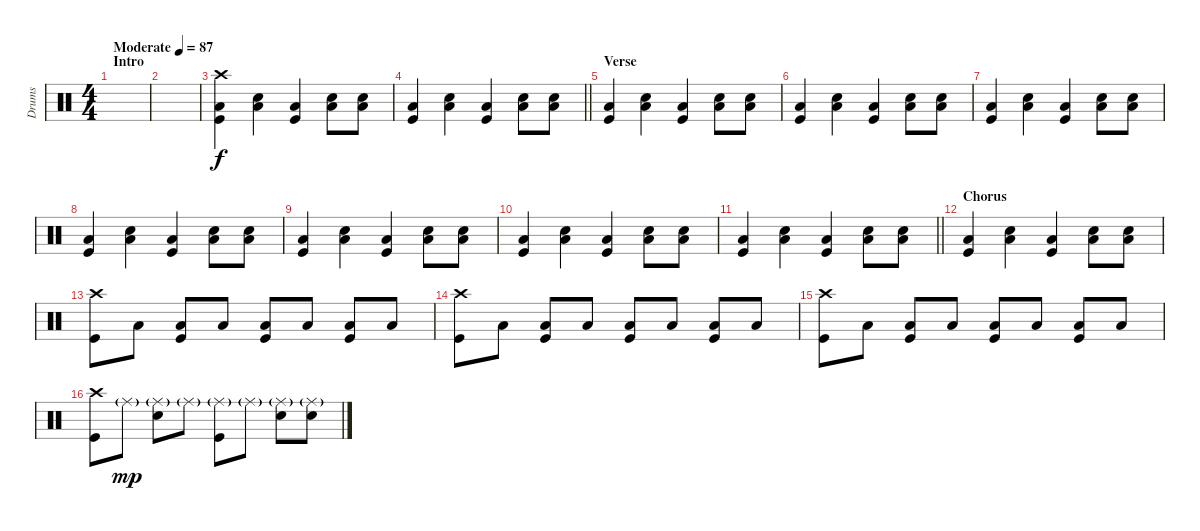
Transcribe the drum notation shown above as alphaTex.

\track ("Drums" "Drums") {instrument percussion}
\staff {score}
\articulation defaults
\ts (4 4)
\section ("" "Intro")
\tempo (87 "Moderate")
\clef neutral
\ks c
|
|
("Crash high (hit)" "Low Floor Tom (hit)" "Kick (hit)").4 ("Snare (hit) 2" "Low Floor Tom (hit)").4 ("Low Floor Tom (hit)" "Kick (hit)").4 ("Snare (hit) 2" "Low Floor Tom (hit)").8 ("Snare (hit) 2" "Low Floor Tom (hit)").8 |
\barLineRight lightlight
("Low Floor Tom (hit)" "Kick (hit)").4 ("Snare (hit) 2" "Low Floor Tom (hit)").4 ("Low Floor Tom (hit)" "Kick (hit)").4 ("Snare (hit) 2" "Low Floor Tom (hit)").8 ("Snare (hit) 2" "Low Floor Tom (hit)").8 |
\section ("" "Verse")
("Low Floor Tom (hit)" "Kick (hit)").4 ("Snare (hit) 2" "Low Floor Tom (hit)").4 ("Low Floor Tom (hit)" "Kick (hit)").4 ("Snare (hit) 2" "Low Floor Tom (hit)").8 ("Snare (hit) 2" "Low Floor Tom (hit)").8 |
("Low Floor Tom (hit)" "Kick (hit)").4 ("Snare (hit) 2" "Low Floor Tom (hit)").4 ("Low Floor Tom (hit)" "Kick (hit)").4 ("Snare (hit) 2" "Low Floor Tom (hit)").8 ("Snare (hit) 2" "Low Floor Tom (hit)").8 |
("Low Floor Tom (hit)" "Kick (hit)").4 ("Snare (hit) 2" "Low Floor Tom (hit)").4 ("Low Floor Tom (hit)" "Kick (hit)").4 ("Snare (hit) 2" "Low Floor Tom (hit)").8 ("Snare (hit) 2" "Low Floor Tom (hit)").8 |
("Low Floor Tom (hit)" "Kick (hit)").4 ("Snare (hit) 2" "Low Floor Tom (hit)").4 ("Low Floor Tom (hit)" "Kick (hit)").4 ("Snare (hit) 2" "Low Floor Tom (hit)").8 ("Snare (hit) 2" "Low Floor Tom (hit)").8 |
("Low Floor Tom (hit)" "Kick (hit)").4 ("Snare (hit) 2" "Low Floor Tom (hit)").4 ("Low Floor Tom (hit)" "Kick (hit)").4 ("Snare (hit) 2" "Low Floor Tom (hit)").8 ("Snare (hit) 2" "Low Floor Tom (hit)").8 |
("Low Floor Tom (hit)" "Kick (hit)").4 ("Snare (hit) 2" "Low Floor Tom (hit)").4 ("Low Floor Tom (hit)" "Kick (hit)").4 ("Snare (hit) 2" "Low Floor Tom (hit)").8 ("Snare (hit) 2" "Low Floor Tom (hit)").8 |
\barLineRight lightlight
("Low Floor Tom (hit)" "Kick (hit)").4 ("Snare (hit) 2" "Low Floor Tom (hit)").4 ("Low Floor Tom (hit)" "Kick (hit)").4 ("Snare (hit) 2" "Low Floor Tom (hit)").8 ("Snare (hit) 2" "Low Floor Tom (hit)").8 |
\section ("" "Chorus")
("Low Floor Tom (hit)" "Kick (hit)").4 ("Snare (hit) 2" "Low Floor Tom (hit)").4 ("Low Floor Tom (hit)" "Kick (hit)").4 ("Snare (hit) 2" "Low Floor Tom (hit)").8 ("Snare (hit) 2" "Low Floor Tom (hit)").8 |
("Crash high (hit)" "Kick (hit)").8 "Low Floor Tom (hit)".8 ("Low Floor Tom (hit)" "Kick (hit)").8 "Low Floor Tom (hit)".8 ("Low Floor Tom (hit)" "Kick (hit)").8 "Low Floor Tom (hit)".8 ("Low Floor Tom (hit)" "Kick (hit)").8 "Low Floor Tom (hit)".8 |
("Crash high (hit)" "Kick (hit)").8 "Low Floor Tom (hit)".8 ("Low Floor Tom (hit)" "Kick (hit)").8 "Low Floor Tom (hit)".8 ("Low Floor Tom (hit)" "Kick (hit)").8 "Low Floor Tom (hit)".8 ("Low Floor Tom (hit)" "Kick (hit)").8 "Low Floor Tom (hit)".8 |
("Crash high (hit)" "Kick (hit)").8 "Low Floor Tom (hit)".8 ("Low Floor Tom (hit)" "Kick (hit)").8 "Low Floor Tom (hit)".8 ("Low Floor Tom (hit)" "Kick (hit)").8 "Low Floor Tom (hit)".8 ("Low Floor Tom (hit)" "Kick (hit)").8 "Low Floor Tom (hit)".8 |
("Crash high (hit)" "Kick (hit)").8 "Ride (middle)"{g}.8{dy mp} ("Ride (middle)"{g} "Snare (hit) 2").8 "Ride (middle)"{g}.8 ("Ride (middle)"{g} "Kick (hit)").8 "Ride (middle)"{g}.8 ("Ride (middle)"{g} "Snare (hit) 2").8 ("Ride (middle)"{g} "Snare (hit) 2").8
